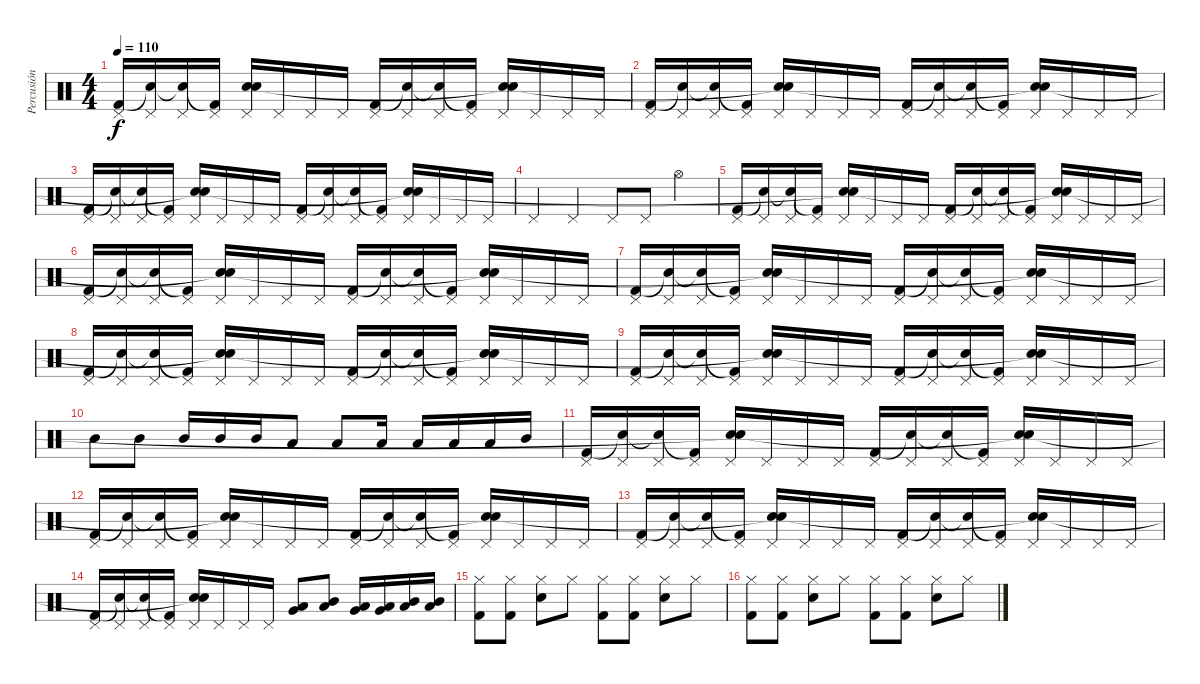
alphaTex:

\track ("Percusión" "Percusión") {instrument percussion}
\staff {score}
\articulation defaults
\ts (4 4)
\tempo 110
\clef neutral
\ks c
("Pedal Hi-Hat (hit)" "Kick (hit) 2").16{dy f} ("Pedal Hi-Hat (hit)" "Snare (hit)"{t}).16 ("Pedal Hi-Hat (hit)" "Snare (hit)"{t}).16 ("Pedal Hi-Hat (hit)" "Kick (hit) 2"{t}).16 ("Pedal Hi-Hat (hit)" "Electric Snare (hit)" "Snare (hit)"{t}).16 "Pedal Hi-Hat (hit)".16 "Pedal Hi-Hat (hit)".16 "Pedal Hi-Hat (hit)".16 ("Pedal Hi-Hat (hit)" "Kick (hit) 2").16 ("Pedal Hi-Hat (hit)" "Snare (hit)"{t}).16 ("Pedal Hi-Hat (hit)" "Snare (hit)"{t}).16 ("Pedal Hi-Hat (hit)" "Kick (hit) 2"{t}).16 ("Pedal Hi-Hat (hit)" "Electric Snare (hit)" "Snare (hit)"{t}).16 "Pedal Hi-Hat (hit)".16 "Pedal Hi-Hat (hit)".16 "Pedal Hi-Hat (hit)".16 |
("Pedal Hi-Hat (hit)" "Kick (hit) 2").16 ("Pedal Hi-Hat (hit)" "Snare (hit)"{t}).16 ("Pedal Hi-Hat (hit)" "Snare (hit)"{t}).16 ("Pedal Hi-Hat (hit)" "Kick (hit) 2"{t}).16 ("Pedal Hi-Hat (hit)" "Electric Snare (hit)" "Snare (hit)"{t}).16 "Pedal Hi-Hat (hit)".16 "Pedal Hi-Hat (hit)".16 "Pedal Hi-Hat (hit)".16 ("Pedal Hi-Hat (hit)" "Kick (hit) 2").16 ("Pedal Hi-Hat (hit)" "Snare (hit)"{t}).16 ("Pedal Hi-Hat (hit)" "Snare (hit)"{t}).16 ("Pedal Hi-Hat (hit)" "Kick (hit) 2"{t}).16 ("Pedal Hi-Hat (hit)" "Electric Snare (hit)" "Snare (hit)"{t}).16 "Pedal Hi-Hat (hit)".16 "Pedal Hi-Hat (hit)".16 "Pedal Hi-Hat (hit)".16 |
("Pedal Hi-Hat (hit)" "Kick (hit) 2").16 ("Pedal Hi-Hat (hit)" "Snare (hit)"{t}).16 ("Pedal Hi-Hat (hit)" "Snare (hit)"{t}).16 ("Pedal Hi-Hat (hit)" "Kick (hit) 2"{t}).16 ("Pedal Hi-Hat (hit)" "Electric Snare (hit)" "Snare (hit)"{t}).16 "Pedal Hi-Hat (hit)".16 "Pedal Hi-Hat (hit)".16 "Pedal Hi-Hat (hit)".16 ("Pedal Hi-Hat (hit)" "Kick (hit) 2").16 ("Pedal Hi-Hat (hit)" "Snare (hit)"{t}).16 ("Pedal Hi-Hat (hit)" "Snare (hit)"{t}).16 ("Pedal Hi-Hat (hit)" "Kick (hit) 2"{t}).16 ("Pedal Hi-Hat (hit)" "Electric Snare (hit)" "Snare (hit)"{t}).16 "Pedal Hi-Hat (hit)".16 "Pedal Hi-Hat (hit)".16 "Pedal Hi-Hat (hit)".16 |
"Pedal Hi-Hat (hit)".4 "Pedal Hi-Hat (hit)".4 "Pedal Hi-Hat (hit)".8 "Pedal Hi-Hat (hit)".8 "Hi-Hat (open)".4 |
("Pedal Hi-Hat (hit)" "Kick (hit) 2").16 ("Pedal Hi-Hat (hit)" "Snare (hit)"{t}).16 ("Pedal Hi-Hat (hit)" "Snare (hit)"{t}).16 ("Pedal Hi-Hat (hit)" "Kick (hit) 2"{t}).16 ("Pedal Hi-Hat (hit)" "Electric Snare (hit)" "Snare (hit)"{t}).16 "Pedal Hi-Hat (hit)".16 "Pedal Hi-Hat (hit)".16 "Pedal Hi-Hat (hit)".16 ("Pedal Hi-Hat (hit)" "Kick (hit) 2").16 ("Pedal Hi-Hat (hit)" "Snare (hit)"{t}).16 ("Pedal Hi-Hat (hit)" "Snare (hit)"{t}).16 ("Pedal Hi-Hat (hit)" "Kick (hit) 2"{t}).16 ("Pedal Hi-Hat (hit)" "Electric Snare (hit)" "Snare (hit)"{t}).16 "Pedal Hi-Hat (hit)".16 "Pedal Hi-Hat (hit)".16 "Pedal Hi-Hat (hit)".16 |
("Pedal Hi-Hat (hit)" "Kick (hit) 2").16 ("Pedal Hi-Hat (hit)" "Snare (hit)"{t}).16 ("Pedal Hi-Hat (hit)" "Snare (hit)"{t}).16 ("Pedal Hi-Hat (hit)" "Kick (hit) 2"{t}).16 ("Pedal Hi-Hat (hit)" "Electric Snare (hit)" "Snare (hit)"{t}).16 "Pedal Hi-Hat (hit)".16 "Pedal Hi-Hat (hit)".16 "Pedal Hi-Hat (hit)".16 ("Pedal Hi-Hat (hit)" "Kick (hit) 2").16 ("Pedal Hi-Hat (hit)" "Snare (hit)"{t}).16 ("Pedal Hi-Hat (hit)" "Snare (hit)"{t}).16 ("Pedal Hi-Hat (hit)" "Kick (hit) 2"{t}).16 ("Pedal Hi-Hat (hit)" "Electric Snare (hit)" "Snare (hit)"{t}).16 "Pedal Hi-Hat (hit)".16 "Pedal Hi-Hat (hit)".16 "Pedal Hi-Hat (hit)".16 |
("Pedal Hi-Hat (hit)" "Kick (hit) 2").16 ("Pedal Hi-Hat (hit)" "Snare (hit)"{t}).16 ("Pedal Hi-Hat (hit)" "Snare (hit)"{t}).16 ("Pedal Hi-Hat (hit)" "Kick (hit) 2"{t}).16 ("Pedal Hi-Hat (hit)" "Electric Snare (hit)" "Snare (hit)"{t}).16 "Pedal Hi-Hat (hit)".16 "Pedal Hi-Hat (hit)".16 "Pedal Hi-Hat (hit)".16 ("Pedal Hi-Hat (hit)" "Kick (hit) 2").16 ("Pedal Hi-Hat (hit)" "Snare (hit)"{t}).16 ("Pedal Hi-Hat (hit)" "Snare (hit)"{t}).16 ("Pedal Hi-Hat (hit)" "Kick (hit) 2"{t}).16 ("Pedal Hi-Hat (hit)" "Electric Snare (hit)" "Snare (hit)"{t}).16 "Pedal Hi-Hat (hit)".16 "Pedal Hi-Hat (hit)".16 "Pedal Hi-Hat (hit)".16 |
("Pedal Hi-Hat (hit)" "Kick (hit) 2").16 ("Pedal Hi-Hat (hit)" "Snare (hit)"{t}).16 ("Pedal Hi-Hat (hit)" "Snare (hit)"{t}).16 ("Pedal Hi-Hat (hit)" "Kick (hit) 2"{t}).16 ("Pedal Hi-Hat (hit)" "Electric Snare (hit)" "Snare (hit)"{t}).16 "Pedal Hi-Hat (hit)".16 "Pedal Hi-Hat (hit)".16 "Pedal Hi-Hat (hit)".16 ("Pedal Hi-Hat (hit)" "Kick (hit) 2").16 ("Pedal Hi-Hat (hit)" "Snare (hit)"{t}).16 ("Pedal Hi-Hat (hit)" "Snare (hit)"{t}).16 ("Pedal Hi-Hat (hit)" "Kick (hit) 2"{t}).16 ("Pedal Hi-Hat (hit)" "Electric Snare (hit)" "Snare (hit)"{t}).16 "Pedal Hi-Hat (hit)".16 "Pedal Hi-Hat (hit)".16 "Pedal Hi-Hat (hit)".16 |
("Pedal Hi-Hat (hit)" "Kick (hit) 2").16 ("Pedal Hi-Hat (hit)" "Snare (hit)"{t}).16 ("Pedal Hi-Hat (hit)" "Snare (hit)"{t}).16 ("Pedal Hi-Hat (hit)" "Kick (hit) 2"{t}).16 ("Pedal Hi-Hat (hit)" "Electric Snare (hit)" "Snare (hit)"{t}).16 "Pedal Hi-Hat (hit)".16 "Pedal Hi-Hat (hit)".16 "Pedal Hi-Hat (hit)".16 ("Pedal Hi-Hat (hit)" "Kick (hit) 2").16 ("Pedal Hi-Hat (hit)" "Snare (hit)"{t}).16 ("Pedal Hi-Hat (hit)" "Snare (hit)"{t}).16 ("Pedal Hi-Hat (hit)" "Kick (hit) 2"{t}).16 ("Pedal Hi-Hat (hit)" "Electric Snare (hit)" "Snare (hit)"{t}).16 "Pedal Hi-Hat (hit)".16 "Pedal Hi-Hat (hit)".16 "Pedal Hi-Hat (hit)".16 |
"Mid Tom (hit)".8 "Mid Tom (hit)".8 "Mid Tom (hit)".16 "Mid Tom (hit)".16 "Mid Tom (hit)".16 "Low Tom (hit)".8 "Low Tom (hit)".8 "Low Tom (hit)".16 "Low Tom (hit)".16 "Low Tom (hit)".16 "Low Tom (hit)".16 "Mid Tom (hit)".16 |
("Pedal Hi-Hat (hit)" "Kick (hit) 2").16 ("Pedal Hi-Hat (hit)" "Snare (hit)"{t}).16 ("Pedal Hi-Hat (hit)" "Snare (hit)"{t}).16 ("Pedal Hi-Hat (hit)" "Kick (hit) 2"{t}).16 ("Pedal Hi-Hat (hit)" "Electric Snare (hit)" "Snare (hit)"{t}).16 "Pedal Hi-Hat (hit)".16 "Pedal Hi-Hat (hit)".16 "Pedal Hi-Hat (hit)".16 ("Pedal Hi-Hat (hit)" "Kick (hit) 2").16 ("Pedal Hi-Hat (hit)" "Snare (hit)"{t}).16 ("Pedal Hi-Hat (hit)" "Snare (hit)"{t}).16 ("Pedal Hi-Hat (hit)" "Kick (hit) 2"{t}).16 ("Pedal Hi-Hat (hit)" "Electric Snare (hit)" "Snare (hit)"{t}).16 "Pedal Hi-Hat (hit)".16 "Pedal Hi-Hat (hit)".16 "Pedal Hi-Hat (hit)".16 |
("Pedal Hi-Hat (hit)" "Kick (hit) 2").16 ("Pedal Hi-Hat (hit)" "Snare (hit)"{t}).16 ("Pedal Hi-Hat (hit)" "Snare (hit)"{t}).16 ("Pedal Hi-Hat (hit)" "Kick (hit) 2"{t}).16 ("Pedal Hi-Hat (hit)" "Electric Snare (hit)" "Snare (hit)"{t}).16 "Pedal Hi-Hat (hit)".16 "Pedal Hi-Hat (hit)".16 "Pedal Hi-Hat (hit)".16 ("Pedal Hi-Hat (hit)" "Kick (hit) 2").16 ("Pedal Hi-Hat (hit)" "Snare (hit)"{t}).16 ("Pedal Hi-Hat (hit)" "Snare (hit)"{t}).16 ("Pedal Hi-Hat (hit)" "Kick (hit) 2"{t}).16 ("Pedal Hi-Hat (hit)" "Electric Snare (hit)" "Snare (hit)"{t}).16 "Pedal Hi-Hat (hit)".16 "Pedal Hi-Hat (hit)".16 "Pedal Hi-Hat (hit)".16 |
("Pedal Hi-Hat (hit)" "Kick (hit) 2").16 ("Pedal Hi-Hat (hit)" "Snare (hit)"{t}).16 ("Pedal Hi-Hat (hit)" "Snare (hit)"{t}).16 ("Pedal Hi-Hat (hit)" "Kick (hit) 2"{t}).16 ("Pedal Hi-Hat (hit)" "Electric Snare (hit)" "Snare (hit)"{t}).16 "Pedal Hi-Hat (hit)".16 "Pedal Hi-Hat (hit)".16 "Pedal Hi-Hat (hit)".16 ("Pedal Hi-Hat (hit)" "Kick (hit) 2").16 ("Pedal Hi-Hat (hit)" "Snare (hit)"{t}).16 ("Pedal Hi-Hat (hit)" "Snare (hit)"{t}).16 ("Pedal Hi-Hat (hit)" "Kick (hit) 2"{t}).16 ("Pedal Hi-Hat (hit)" "Electric Snare (hit)" "Snare (hit)"{t}).16 "Pedal Hi-Hat (hit)".16 "Pedal Hi-Hat (hit)".16 "Pedal Hi-Hat (hit)".16 |
("Pedal Hi-Hat (hit)" "Kick (hit) 2").16 ("Pedal Hi-Hat (hit)" "Snare (hit)"{t}).16 ("Pedal Hi-Hat (hit)" "Snare (hit)"{t}).16 ("Pedal Hi-Hat (hit)" "Kick (hit) 2"{t}).16 ("Pedal Hi-Hat (hit)" "Electric Snare (hit)" "Snare (hit)"{t}).16 "Pedal Hi-Hat (hit)".16 "Pedal Hi-Hat (hit)".16 "Pedal Hi-Hat (hit)".16 ("Low Tom (hit)" "Very Low Tom (hit)").8 ("Low Tom (hit)" "Mid Tom (hit)").8 ("Low Tom (hit)" "Very Low Tom (hit)").16 ("Low Tom (hit)" "Very Low Tom (hit)").16 ("Mid Tom (hit)" "Low Tom (hit)").16 ("Mid Tom (hit)" "Low Tom (hit)").16 |
("Hi-Hat (closed)" "Kick (hit) 2").8 ("Hi-Hat (closed)" "Kick (hit) 2").8 ("Hi-Hat (closed)" "Electric Snare (hit)").8 "Hi-Hat (closed)".8 ("Hi-Hat (closed)" "Kick (hit) 2").8 ("Hi-Hat (closed)" "Kick (hit) 2").8 ("Hi-Hat (closed)" "Electric Snare (hit)").8 "Hi-Hat (closed)".8 |
("Hi-Hat (closed)" "Kick (hit) 2").8 ("Hi-Hat (closed)" "Kick (hit) 2").8 ("Hi-Hat (closed)" "Electric Snare (hit)").8 "Hi-Hat (closed)".8 ("Hi-Hat (closed)" "Kick (hit) 2").8 ("Hi-Hat (closed)" "Kick (hit) 2").8 ("Hi-Hat (closed)" "Electric Snare (hit)").8 "Hi-Hat (closed)".8
